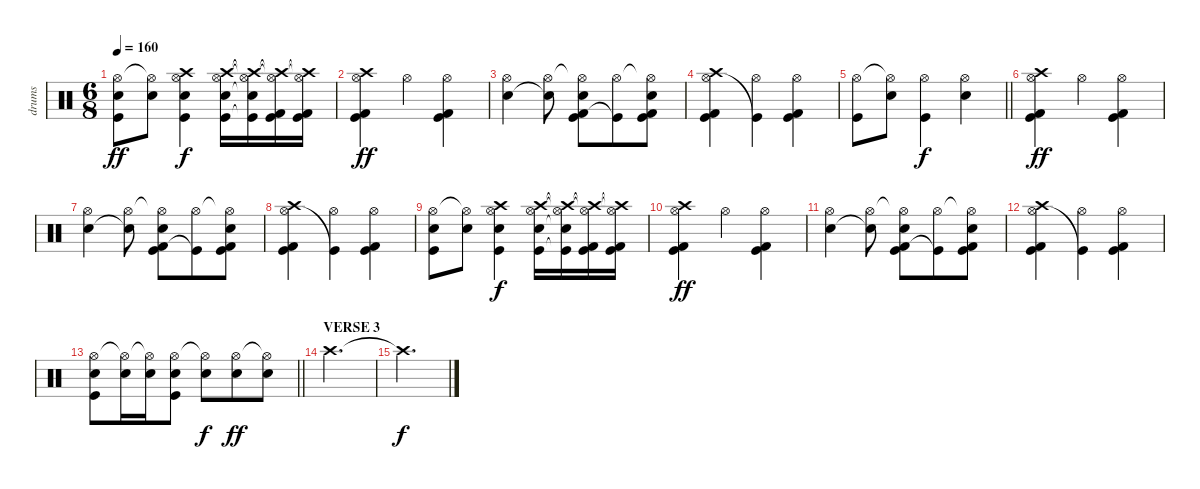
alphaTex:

\track ("drums" "drums") {instrument percussion}
\staff {score}
\articulation defaults
\ts (6 8)
\tempo 160
\clef neutral
\ks c
("Hi-Hat (open)" "Electric Snare (hit)" "Kick (hit)").8{dy ff} ("Hi-Hat (open)"{t} "Electric Snare (hit)").8 ("Crash high (hit)" "Hi-Hat (open)" "Electric Snare (hit)" "Kick (hit)").4{dy f} ("Crash high (hit)" "Hi-Hat (open)" "Electric Snare (hit)" "Kick (hit)").16 ("Crash high (hit)"{t} "Hi-Hat (open)"{t} "Electric Snare (hit)"{t} "Kick (hit)"{t}).16 ("Crash high (hit)"{t} "Hi-Hat (open)"{t} "Kick (hit) 2" "Kick (hit)").16 ("Crash high (hit)"{t} "Hi-Hat (open)"{t} "Kick (hit) 2" "Kick (hit)").16 |
("Crash high (hit)" "Hi-Hat (open)" "Kick (hit) 2" "Kick (hit)").4{dy ff} "Hi-Hat (open)".4 ("Hi-Hat (open)" "Kick (hit) 2" "Kick (hit)").4 |
("Hi-Hat (open)" "Electric Snare (hit)").4 ("Hi-Hat (open)" "Electric Snare (hit)"{t}).8 ("Hi-Hat (open)"{t} "Kick (hit) 2" "Electric Snare (hit)" "Kick (hit)").8 ("Hi-Hat (open)" "Kick (hit)"{t}).8 ("Hi-Hat (open)"{t} "Kick (hit) 2" "Electric Snare (hit)" "Kick (hit)").8 |
("Crash high (hit)" "Hi-Hat (open)" "Kick (hit) 2" "Kick (hit)").4 ("Hi-Hat (open)" "Kick (hit)"{t}).4 ("Hi-Hat (open)" "Kick (hit) 2" "Kick (hit)").4 |
\barLineRight lightlight
("Hi-Hat (open)" "Kick (hit)").8 ("Hi-Hat (open)"{t} "Electric Snare (hit)").8 ("Hi-Hat (open)" "Kick (hit)").4{dy f} ("Hi-Hat (open)" "Electric Snare (hit)").4 |
("Crash high (hit)" "Hi-Hat (open)" "Kick (hit) 2" "Kick (hit)").4{dy ff} "Hi-Hat (open)".4 ("Hi-Hat (open)" "Kick (hit) 2" "Kick (hit)").4 |
("Hi-Hat (open)" "Electric Snare (hit)").4 ("Hi-Hat (open)" "Electric Snare (hit)"{t}).8 ("Hi-Hat (open)"{t} "Kick (hit) 2" "Electric Snare (hit)" "Kick (hit)").8 ("Hi-Hat (open)" "Kick (hit)"{t}).8 ("Hi-Hat (open)"{t} "Kick (hit) 2" "Electric Snare (hit)" "Kick (hit)").8 |
("Crash high (hit)" "Hi-Hat (open)" "Kick (hit) 2" "Kick (hit)").4 ("Hi-Hat (open)" "Kick (hit)"{t}).4 ("Hi-Hat (open)" "Kick (hit) 2" "Kick (hit)").4 |
("Hi-Hat (open)" "Electric Snare (hit)" "Kick (hit)").8 ("Hi-Hat (open)"{t} "Electric Snare (hit)").8 ("Crash high (hit)" "Hi-Hat (open)" "Electric Snare (hit)" "Kick (hit)").4{dy f} ("Crash high (hit)" "Hi-Hat (open)" "Electric Snare (hit)" "Kick (hit)").16 ("Crash high (hit)"{t} "Hi-Hat (open)"{t} "Electric Snare (hit)"{t} "Kick (hit)"{t}).16 ("Crash high (hit)"{t} "Hi-Hat (open)"{t} "Kick (hit) 2" "Kick (hit)").16 ("Crash high (hit)"{t} "Hi-Hat (open)"{t} "Kick (hit) 2" "Kick (hit)").16 |
("Crash high (hit)" "Hi-Hat (open)" "Kick (hit) 2" "Kick (hit)").4{dy ff} "Hi-Hat (open)".4 ("Hi-Hat (open)" "Kick (hit) 2" "Kick (hit)").4 |
("Hi-Hat (open)" "Electric Snare (hit)").4 ("Hi-Hat (open)" "Electric Snare (hit)"{t}).8 ("Hi-Hat (open)"{t} "Kick (hit) 2" "Electric Snare (hit)" "Kick (hit)").8 ("Hi-Hat (open)" "Kick (hit)"{t}).8 ("Hi-Hat (open)"{t} "Kick (hit) 2" "Electric Snare (hit)" "Kick (hit)").8 |
("Crash high (hit)" "Hi-Hat (open)" "Kick (hit) 2" "Kick (hit)").4 ("Hi-Hat (open)" "Kick (hit)"{t}).4 ("Hi-Hat (open)" "Kick (hit) 2" "Kick (hit)").4 |
\barLineRight lightlight
("Hi-Hat (open)" "Electric Snare (hit)" "Kick (hit)").8 ("Hi-Hat (open)"{t} "Electric Snare (hit)").16 ("Hi-Hat (open)"{t} "Electric Snare (hit)").16 ("Hi-Hat (open)" "Electric Snare (hit)" "Kick (hit)").8 ("Hi-Hat (open)"{t} "Electric Snare (hit)").8{dy f} ("Hi-Hat (open)" "Electric Snare (hit)").8{dy ff} ("Hi-Hat (open)"{t} "Electric Snare (hit)").8 |
\section ("" "VERSE 3")
"Crash high (hit)".2{d} |
"Crash high (hit)"{t}.2{d dy f}
